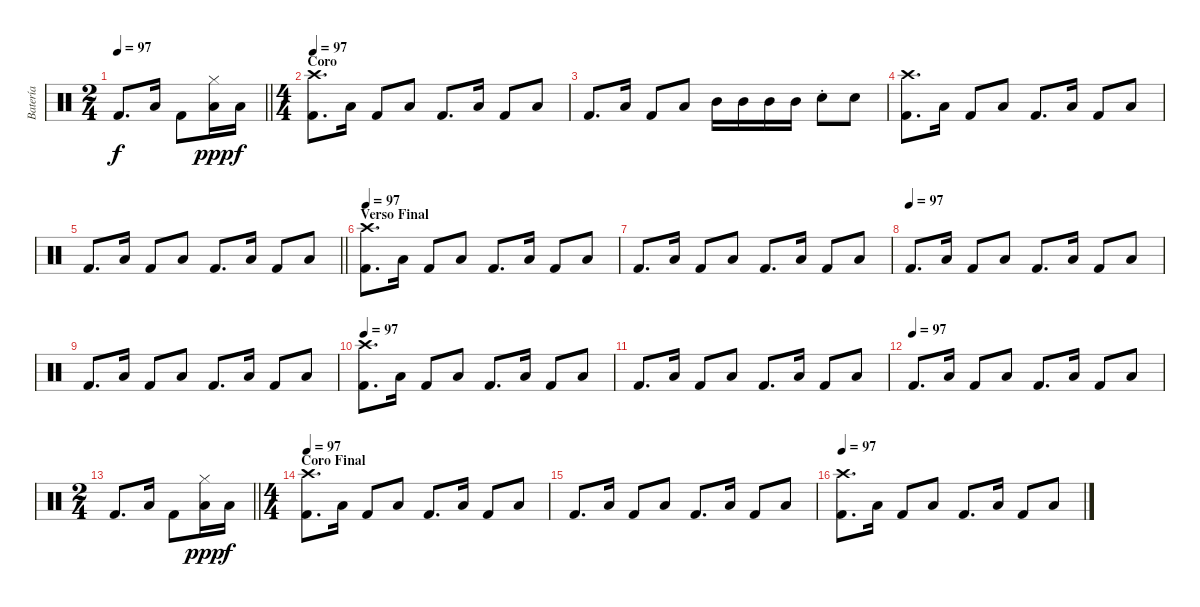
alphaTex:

\track ("Batería" "Batería") {instrument percussion}
\staff {score}
\articulation defaults
\ts (2 4)
\tempo 97
\clef neutral
\barLineRight lightlight
\ks c "Kick (hit) 2".8{d dy f} "Low Tom (hit)".16 "Kick (hit) 2".8
("Low Tom (hit)" "Hi-Hat (closed)").16{dy ppp} "Low Tom (hit)".16{dy f} |
\ts (4 4)
\section ("" "Coro")
\tempo 97
("Crash high (hit)" "Kick (hit) 2").8{d} "Low Tom (hit)".16 "Kick (hit) 2".8 "Low Tom (hit)".8 "Kick (hit) 2".8{d} "Low Tom (hit)".16 "Kick (hit) 2".8 "Low Tom (hit)".8 |
"Kick (hit) 2".8{d} "Low Tom (hit)".16 "Kick (hit) 2".8 "Low Tom (hit)".8 "Mid Tom (hit)".16 "Mid Tom (hit)".16 "Mid Tom (hit)".16 "Mid Tom (hit)".16 "Snare (hit) 2"{st}.8 "Snare (hit) 2".8 |
("Kick (hit) 2" "Crash high (hit)").8{d} "Low Tom (hit)".16 "Kick (hit) 2".8 "Low Tom (hit)".8 "Kick (hit) 2".8{d} "Low Tom (hit)".16 "Kick (hit) 2".8 "Low Tom (hit)".8 |
\barLineRight lightlight "Kick (hit) 2".8{d} "Low Tom (hit)".16 "Kick (hit) 2".8 "Low Tom (hit)".8 "Kick (hit) 2".8{d} "Low Tom (hit)".16 "Kick (hit) 2".8 "Low Tom (hit)".8
|
\section ("" "Verso Final")
\tempo 97
("Crash high (hit)" "Kick (hit) 2").8{d} "Low Tom (hit)".16 "Kick (hit) 2".8 "Low Tom (hit)".8 "Kick (hit) 2".8{d} "Low Tom (hit)".16 "Kick (hit) 2".8 "Low Tom (hit)".8 |
"Kick (hit) 2".8{d} "Low Tom (hit)".16 "Kick (hit) 2".8 "Low Tom (hit)".8 "Kick (hit) 2".8{d} "Low Tom (hit)".16 "Kick (hit) 2".8 "Low Tom (hit)".8 |
\tempo (97)
"Kick (hit) 2".8{d} "Low Tom (hit)".16 "Kick (hit) 2".8 "Low Tom (hit)".8 "Kick (hit) 2".8{d} "Low Tom (hit)".16 "Kick (hit) 2".8 "Low Tom (hit)".8 |
"Kick (hit) 2".8{d} "Low Tom (hit)".16 "Kick (hit) 2".8 "Low Tom (hit)".8 "Kick (hit) 2".8{d} "Low Tom (hit)".16 "Kick (hit) 2".8 "Low Tom (hit)".8 |
\tempo 97
("Crash high (hit)" "Kick (hit) 2").8{d} "Low Tom (hit)".16 "Kick (hit) 2".8 "Low Tom (hit)".8 "Kick (hit) 2".8{d} "Low Tom (hit)".16 "Kick (hit) 2".8 "Low Tom (hit)".8 |
"Kick (hit) 2".8{d} "Low Tom (hit)".16 "Kick (hit) 2".8 "Low Tom (hit)".8 "Kick (hit) 2".8{d} "Low Tom (hit)".16 "Kick (hit) 2".8 "Low Tom (hit)".8 |
\tempo (97)
"Kick (hit) 2".8{d} "Low Tom (hit)".16 "Kick (hit) 2".8 "Low Tom (hit)".8 "Kick (hit) 2".8{d} "Low Tom (hit)".16 "Kick (hit) 2".8 "Low Tom (hit)".8 |
\ts (2 4)
\barLineRight lightlight "Kick (hit) 2".8{d} "Low Tom (hit)".16 "Kick (hit) 2".8
("Low Tom (hit)" "Hi-Hat (closed)").16{dy ppp} "Low Tom (hit)".16{dy f} |
\ts (4 4)
\section ("" "Coro Final")
\tempo 97
("Crash high (hit)" "Kick (hit) 2").8{d} "Low Tom (hit)".16 "Kick (hit) 2".8 "Low Tom (hit)".8 "Kick (hit) 2".8{d} "Low Tom (hit)".16 "Kick (hit) 2".8 "Low Tom (hit)".8 |
"Kick (hit) 2".8{d} "Low Tom (hit)".16 "Kick (hit) 2".8 "Low Tom (hit)".8 "Kick (hit) 2".8{d} "Low Tom (hit)".16 "Kick (hit) 2".8 "Low Tom (hit)".8 |
\tempo 97
("Crash high (hit)" "Kick (hit) 2").8{d} "Low Tom (hit)".16 "Kick (hit) 2".8 "Low Tom (hit)".8 "Kick (hit) 2".8{d} "Low Tom (hit)".16 "Kick (hit) 2".8 "Low Tom (hit)".8
